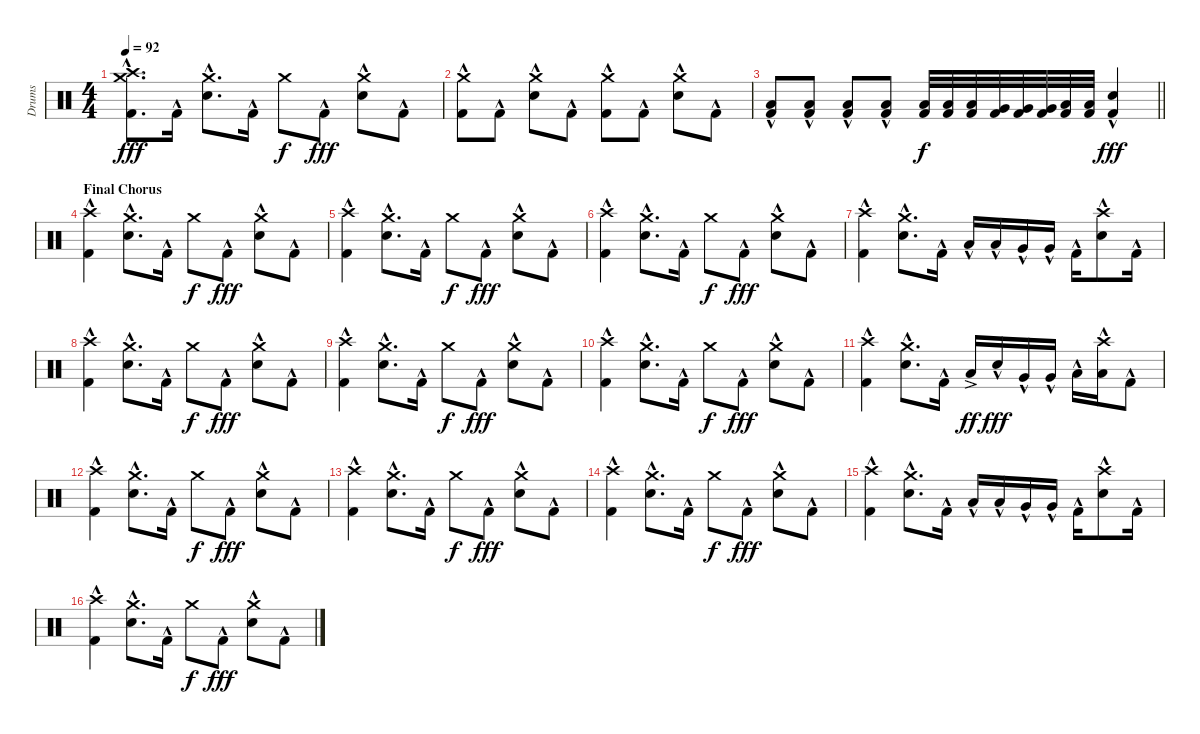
\track ("Drums" "Drums") {instrument percussion}
\staff {score}
\articulation defaults
\ts (4 4)
\tempo 92
\clef neutral
\ks c
("Crash medium (hit)" "Crash high (hit)" "Kick (hit) 2"{hac}).8{d dy fff} "Kick (hit) 2"{hac}.16 ("Crash medium (hit)" "Electric Snare (hit)"{hac}).8{d} "Kick (hit) 2"{hac}.16 "Crash medium (hit)".8{dy f} "Kick (hit) 2"{hac}.8{dy fff} ("Crash medium (hit)" "Electric Snare (hit)"{hac}).8 "Kick (hit) 2"{hac}.8 |
("Crash medium (hit)" "Kick (hit) 2"{hac}).8 "Kick (hit) 2"{hac}.8 ("Crash medium (hit)" "Electric Snare (hit)"{hac}).8 "Kick (hit) 2"{hac}.8 ("Crash medium (hit)" "Kick (hit) 2"{hac}).8 "Kick (hit) 2"{hac}.8 ("Crash medium (hit)" "Electric Snare (hit)"{hac}).8 "Kick (hit) 2"{hac}.8 |
\barLineRight lightlight
("Low Floor Tom (hit)"{hac} "Kick (hit) 2"{hac}).8 ("Low Floor Tom (hit)"{hac} "Kick (hit) 2"{hac}).8 ("Low Floor Tom (hit)"{hac} "Kick (hit) 2"{hac}).8 ("Low Floor Tom (hit)"{hac} "Kick (hit) 2"{hac}).8 ("Low Floor Tom (hit)" "Kick (hit) 2").32{dy f} ("Low Floor Tom (hit)" "Kick (hit) 2").32 ("Low Floor Tom (hit)" "Kick (hit) 2").32 ("Very Low Tom (hit)" "Kick (hit) 2").32 ("Very Low Tom (hit)" "Kick (hit) 2").32 ("Very Low Tom (hit)" "Kick (hit) 2").32 ("Low Floor Tom (hit)" "Kick (hit) 2").32 ("Low Floor Tom (hit)" "Kick (hit) 2").32 ("Electric Snare (hit)"{hac} "Kick (hit) 2"{hac}).4{dy fff} |
\section ("" "Final Chorus")
("Crash high (hit)" "Kick (hit) 2"{hac}).4 ("Crash medium (hit)" "Electric Snare (hit)"{hac}).8{d} "Kick (hit) 2"{hac}.16 "Crash medium (hit)".8{dy f} "Kick (hit) 2"{hac}.8{dy fff} ("Crash medium (hit)" "Electric Snare (hit)"{hac}).8 "Kick (hit) 2"{hac}.8 |
("Crash high (hit)" "Kick (hit) 2"{hac}).4 ("Crash medium (hit)" "Electric Snare (hit)"{hac}).8{d} "Kick (hit) 2"{hac}.16 "Crash medium (hit)".8{dy f} "Kick (hit) 2"{hac}.8{dy fff} ("Crash medium (hit)" "Electric Snare (hit)"{hac}).8 "Kick (hit) 2"{hac}.8 |
("Crash high (hit)" "Kick (hit) 2"{hac}).4 ("Crash medium (hit)" "Electric Snare (hit)"{hac}).8{d} "Kick (hit) 2"{hac}.16 "Crash medium (hit)".8{dy f} "Kick (hit) 2"{hac}.8{dy fff} ("Crash medium (hit)" "Electric Snare (hit)"{hac}).8 "Kick (hit) 2"{hac}.8 |
("Crash high (hit)" "Kick (hit) 2"{hac}).4 ("Crash medium (hit)" "Electric Snare (hit)"{hac}).8{d} "Kick (hit) 2"{hac}.16 "Low Floor Tom (hit)"{hac}.16 "Low Floor Tom (hit)"{hac}.16 "Very Low Tom (hit)"{hac}.16 "Very Low Tom (hit)"{hac}.16 "Kick (hit) 2"{hac}.16 ("Crash high (hit)" "Electric Snare (hit)"{hac}).8 "Kick (hit) 2"{hac}.16 |
("Crash high (hit)" "Kick (hit) 2"{hac}).4 ("Crash medium (hit)" "Electric Snare (hit)"{hac}).8{d} "Kick (hit) 2"{hac}.16 "Crash medium (hit)".8{dy f} "Kick (hit) 2"{hac}.8{dy fff} ("Crash medium (hit)" "Electric Snare (hit)"{hac}).8 "Kick (hit) 2"{hac}.8 |
("Crash high (hit)" "Kick (hit) 2"{hac}).4 ("Crash medium (hit)" "Electric Snare (hit)"{hac}).8{d} "Kick (hit) 2"{hac}.16 "Crash medium (hit)".8{dy f} "Kick (hit) 2"{hac}.8{dy fff} ("Crash medium (hit)" "Electric Snare (hit)"{hac}).8 "Kick (hit) 2"{hac}.8 |
("Crash high (hit)" "Kick (hit) 2"{hac}).4 ("Crash medium (hit)" "Electric Snare (hit)"{hac}).8{d} "Kick (hit) 2"{hac}.16 "Crash medium (hit)".8{dy f} "Kick (hit) 2"{hac}.8{dy fff} ("Crash medium (hit)" "Electric Snare (hit)"{hac}).8 "Kick (hit) 2"{hac}.8 |
("Crash high (hit)" "Kick (hit) 2"{hac}).4 ("Crash medium (hit)" "Electric Snare (hit)"{hac}).8{d} "Kick (hit) 2"{hac}.16 "Low Floor Tom (hit)"{ac}.16{dy ff} "Electric Snare (hit)"{hac}.16{dy fff} "Very Low Tom (hit)"{hac}.16 "Very Low Tom (hit)"{hac}.16 "Low Tom (hit)"{hac}.16 ("Crash high (hit)" "Low Tom (hit)"{hac}).16 "Kick (hit) 2"{hac}.8 |
("Crash high (hit)" "Kick (hit) 2"{hac}).4 ("Crash medium (hit)" "Electric Snare (hit)"{hac}).8{d} "Kick (hit) 2"{hac}.16 "Crash medium (hit)".8{dy f} "Kick (hit) 2"{hac}.8{dy fff} ("Crash medium (hit)" "Electric Snare (hit)"{hac}).8 "Kick (hit) 2"{hac}.8 |
("Crash high (hit)" "Kick (hit) 2"{hac}).4 ("Crash medium (hit)" "Electric Snare (hit)"{hac}).8{d} "Kick (hit) 2"{hac}.16 "Crash medium (hit)".8{dy f} "Kick (hit) 2"{hac}.8{dy fff} ("Crash medium (hit)" "Electric Snare (hit)"{hac}).8 "Kick (hit) 2"{hac}.8 |
("Crash high (hit)" "Kick (hit) 2"{hac}).4 ("Crash medium (hit)" "Electric Snare (hit)"{hac}).8{d} "Kick (hit) 2"{hac}.16 "Crash medium (hit)".8{dy f} "Kick (hit) 2"{hac}.8{dy fff} ("Crash medium (hit)" "Electric Snare (hit)"{hac}).8 "Kick (hit) 2"{hac}.8 |
("Crash high (hit)" "Kick (hit) 2"{hac}).4 ("Crash medium (hit)" "Electric Snare (hit)"{hac}).8{d} "Kick (hit) 2"{hac}.16 "Low Floor Tom (hit)"{hac}.16 "Low Floor Tom (hit)"{hac}.16 "Very Low Tom (hit)"{hac}.16 "Very Low Tom (hit)"{hac}.16 "Kick (hit) 2"{hac}.16 ("Crash high (hit)" "Electric Snare (hit)"{hac}).8 "Kick (hit) 2"{hac}.16 |
("Crash high (hit)" "Kick (hit) 2"{hac}).4 ("Crash medium (hit)" "Electric Snare (hit)"{hac}).8{d} "Kick (hit) 2"{hac}.16 "Crash medium (hit)".8{dy f} "Kick (hit) 2"{hac}.8{dy fff} ("Crash medium (hit)" "Electric Snare (hit)"{hac}).8 "Kick (hit) 2"{hac}.8
